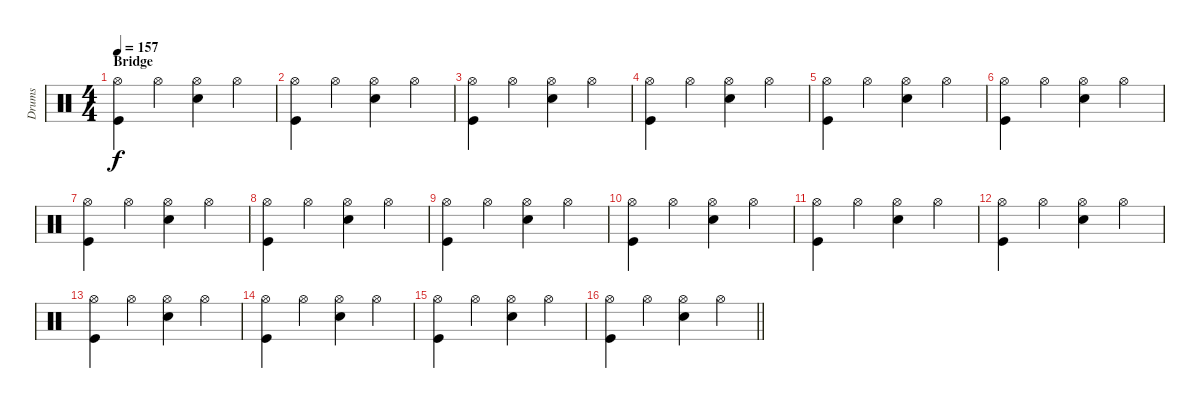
\track ("Drums" "Drums") {instrument percussion}
\staff {score}
\articulation defaults
\ts (4 4)
\section ("" "Bridge")
\tempo 157
\clef neutral
\ks c
("Hi-Hat (open)" "Kick (hit)").4{dy f} "Hi-Hat (open)".4 ("Hi-Hat (open)" "Snare (hit) 2").4 "Hi-Hat (open)".4 |
("Hi-Hat (open)" "Kick (hit)").4 "Hi-Hat (open)".4 ("Hi-Hat (open)" "Snare (hit) 2").4 "Hi-Hat (open)".4 |
("Hi-Hat (open)" "Kick (hit)").4 "Hi-Hat (open)".4 ("Hi-Hat (open)" "Snare (hit) 2").4 "Hi-Hat (open)".4 |
("Hi-Hat (open)" "Kick (hit)").4 "Hi-Hat (open)".4 ("Hi-Hat (open)" "Snare (hit) 2").4 "Hi-Hat (open)".4 |
("Hi-Hat (open)" "Kick (hit)").4 "Hi-Hat (open)".4 ("Hi-Hat (open)" "Snare (hit) 2").4 "Hi-Hat (open)".4 |
("Hi-Hat (open)" "Kick (hit)").4 "Hi-Hat (open)".4 ("Hi-Hat (open)" "Snare (hit) 2").4 "Hi-Hat (open)".4 |
("Hi-Hat (open)" "Kick (hit)").4 "Hi-Hat (open)".4 ("Hi-Hat (open)" "Snare (hit) 2").4 "Hi-Hat (open)".4 |
("Hi-Hat (open)" "Kick (hit)").4 "Hi-Hat (open)".4 ("Hi-Hat (open)" "Snare (hit) 2").4 "Hi-Hat (open)".4 |
("Hi-Hat (open)" "Kick (hit)").4 "Hi-Hat (open)".4 ("Hi-Hat (open)" "Snare (hit) 2").4 "Hi-Hat (open)".4 |
("Hi-Hat (open)" "Kick (hit)").4 "Hi-Hat (open)".4 ("Hi-Hat (open)" "Snare (hit) 2").4 "Hi-Hat (open)".4 |
("Hi-Hat (open)" "Kick (hit)").4 "Hi-Hat (open)".4 ("Hi-Hat (open)" "Snare (hit) 2").4 "Hi-Hat (open)".4 |
("Hi-Hat (open)" "Kick (hit)").4 "Hi-Hat (open)".4 ("Hi-Hat (open)" "Snare (hit) 2").4 "Hi-Hat (open)".4 |
("Hi-Hat (open)" "Kick (hit)").4 "Hi-Hat (open)".4 ("Hi-Hat (open)" "Snare (hit) 2").4 "Hi-Hat (open)".4 |
("Hi-Hat (open)" "Kick (hit)").4 "Hi-Hat (open)".4 ("Hi-Hat (open)" "Snare (hit) 2").4 "Hi-Hat (open)".4 |
("Hi-Hat (open)" "Kick (hit)").4 "Hi-Hat (open)".4 ("Hi-Hat (open)" "Snare (hit) 2").4 "Hi-Hat (open)".4 |
\barLineRight lightlight
("Hi-Hat (open)" "Kick (hit)").4 "Hi-Hat (open)".4 ("Hi-Hat (open)" "Snare (hit) 2").4 "Hi-Hat (open)".4
